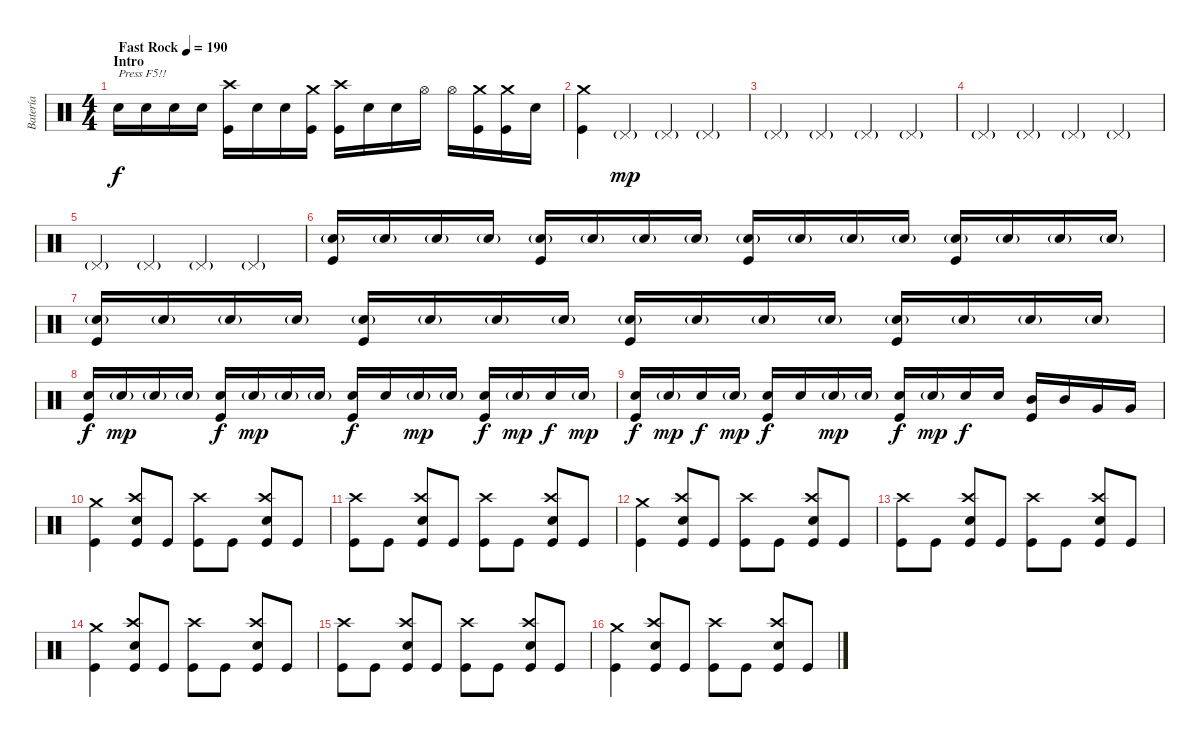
\track ("Batería" "Batería") {instrument percussion}
\staff {score}
\articulation defaults
\ts (4 4)
\section ("" "Intro")
\tempo (190 "Fast Rock")
\clef neutral
\ks c "Electric Snare (hit)".16{txt "Press F5!!" dy f} "Electric Snare (hit)".16 "Electric Snare (hit)".16 "Electric Snare (hit)".16
("Crash high (hit)" "Kick (hit)").16 "Electric Snare (hit)".16 "Electric Snare (hit)".16 ("Crash medium (hit)" "Kick (hit)").16 ("Crash high (hit)" "Kick (hit)").16 "Electric Snare (hit)".16 "Electric Snare (hit)".16 "Hi-Hat (open)".16 "Hi-Hat (open)".16 ("Crash medium (hit)" "Kick (hit)").16 ("Crash medium (hit)" "Kick (hit)").16 "Electric Snare (hit)".16 |
("Crash medium (hit)" "Kick (hit)").4 "Pedal Hi-Hat (hit)"{g}.4{dy mp} "Pedal Hi-Hat (hit)"{g}.4 "Pedal Hi-Hat (hit)"{g}.4 |
"Pedal Hi-Hat (hit)"{g}.4 "Pedal Hi-Hat (hit)"{g}.4 "Pedal Hi-Hat (hit)"{g}.4 "Pedal Hi-Hat (hit)"{g}.4 |
"Pedal Hi-Hat (hit)"{g}.4 "Pedal Hi-Hat (hit)"{g}.4 "Pedal Hi-Hat (hit)"{g}.4 "Pedal Hi-Hat (hit)"{g}.4 |
"Pedal Hi-Hat (hit)"{g}.4 "Pedal Hi-Hat (hit)"{g}.4 "Pedal Hi-Hat (hit)"{g}.4 "Pedal Hi-Hat (hit)"{g}.4 |
("Electric Snare (hit)"{g} "Kick (hit)").16 "Electric Snare (hit)"{g}.16 "Electric Snare (hit)"{g}.16 "Electric Snare (hit)"{g}.16 ("Electric Snare (hit)"{g} "Kick (hit)").16 "Electric Snare (hit)"{g}.16 "Electric Snare (hit)"{g}.16 "Electric Snare (hit)"{g}.16 ("Electric Snare (hit)"{g} "Kick (hit)").16 "Electric Snare (hit)"{g}.16 "Electric Snare (hit)"{g}.16 "Electric Snare (hit)"{g}.16 ("Electric Snare (hit)"{g} "Kick (hit)").16 "Electric Snare (hit)"{g}.16 "Electric Snare (hit)"{g}.16 "Electric Snare (hit)"{g}.16 |
("Electric Snare (hit)"{g} "Kick (hit)").16 "Electric Snare (hit)"{g}.16 "Electric Snare (hit)"{g}.16 "Electric Snare (hit)"{g}.16 ("Electric Snare (hit)"{g} "Kick (hit)").16 "Electric Snare (hit)"{g}.16 "Electric Snare (hit)"{g}.16 "Electric Snare (hit)"{g}.16 ("Electric Snare (hit)"{g} "Kick (hit)").16 "Electric Snare (hit)"{g}.16 "Electric Snare (hit)"{g}.16 "Electric Snare (hit)"{g}.16 ("Electric Snare (hit)"{g} "Kick (hit)").16 "Electric Snare (hit)"{g}.16 "Electric Snare (hit)"{g}.16 "Electric Snare (hit)"{g}.16 |
("Electric Snare (hit)" "Kick (hit)").16{dy f} "Electric Snare (hit)"{g}.16{dy mp} "Electric Snare (hit)"{g}.16 "Electric Snare (hit)"{g}.16 ("Electric Snare (hit)" "Kick (hit)").16{dy f} "Electric Snare (hit)"{g}.16{dy mp} "Electric Snare (hit)"{g}.16 "Electric Snare (hit)"{g}.16 ("Electric Snare (hit)" "Kick (hit)").16{dy f} "Electric Snare (hit)".16 "Electric Snare (hit)"{g}.16{dy mp} "Electric Snare (hit)"{g}.16 ("Electric Snare (hit)" "Kick (hit)").16{dy f} "Electric Snare (hit)"{g}.16{dy mp} "Electric Snare (hit)".16{dy f} "Electric Snare (hit)"{g}.16{dy mp} |
("Electric Snare (hit)" "Kick (hit)").16{dy f} "Electric Snare (hit)"{g}.16{dy mp} "Electric Snare (hit)".16{dy f} "Electric Snare (hit)"{g}.16{dy mp} ("Electric Snare (hit)" "Kick (hit)").16{dy f} "Electric Snare (hit)".16 "Electric Snare (hit)"{g}.16{dy mp} "Electric Snare (hit)"{g}.16 ("Electric Snare (hit)" "Kick (hit)").16{dy f} "Electric Snare (hit)"{g}.16{dy mp} "Electric Snare (hit)".16{dy f} "Electric Snare (hit)".16 ("Mid Tom (hit)" "Kick (hit)").16 "Mid Tom (hit)".16 "Very Low Tom (hit)".16 "Very Low Tom (hit)".16 |
("Crash medium (hit)" "Kick (hit)").4 ("Crash high (hit)" "Electric Snare (hit)" "Kick (hit)").8 "Kick (hit)".8 ("Crash high (hit)" "Kick (hit)").8 "Kick (hit)".8 ("Crash high (hit)" "Electric Snare (hit)" "Kick (hit)").8 "Kick (hit)".8 |
("Crash high (hit)" "Kick (hit)").8 "Kick (hit)".8 ("Crash high (hit)" "Electric Snare (hit)" "Kick (hit)").8 "Kick (hit)".8 ("Crash high (hit)" "Kick (hit)").8 "Kick (hit)".8 ("Crash high (hit)" "Electric Snare (hit)" "Kick (hit)").8 "Kick (hit)".8 |
("Crash medium (hit)" "Kick (hit)").4 ("Crash high (hit)" "Electric Snare (hit)" "Kick (hit)").8 "Kick (hit)".8 ("Crash high (hit)" "Kick (hit)").8 "Kick (hit)".8 ("Crash high (hit)" "Electric Snare (hit)" "Kick (hit)").8 "Kick (hit)".8 |
("Crash high (hit)" "Kick (hit)").8 "Kick (hit)".8 ("Crash high (hit)" "Electric Snare (hit)" "Kick (hit)").8 "Kick (hit)".8 ("Crash high (hit)" "Kick (hit)").8 "Kick (hit)".8 ("Crash high (hit)" "Electric Snare (hit)" "Kick (hit)").8 "Kick (hit)".8 |
("Crash medium (hit)" "Kick (hit)").4 ("Crash high (hit)" "Electric Snare (hit)" "Kick (hit)").8 "Kick (hit)".8 ("Crash high (hit)" "Kick (hit)").8 "Kick (hit)".8 ("Crash high (hit)" "Electric Snare (hit)" "Kick (hit)").8 "Kick (hit)".8 |
("Crash high (hit)" "Kick (hit)").8 "Kick (hit)".8 ("Crash high (hit)" "Electric Snare (hit)" "Kick (hit)").8 "Kick (hit)".8 ("Crash high (hit)" "Kick (hit)").8 "Kick (hit)".8 ("Crash high (hit)" "Electric Snare (hit)" "Kick (hit)").8 "Kick (hit)".8 |
("Crash medium (hit)" "Kick (hit)").4 ("Crash high (hit)" "Electric Snare (hit)" "Kick (hit)").8 "Kick (hit)".8 ("Crash high (hit)" "Kick (hit)").8 "Kick (hit)".8 ("Crash high (hit)" "Electric Snare (hit)" "Kick (hit)").8 "Kick (hit)".8
